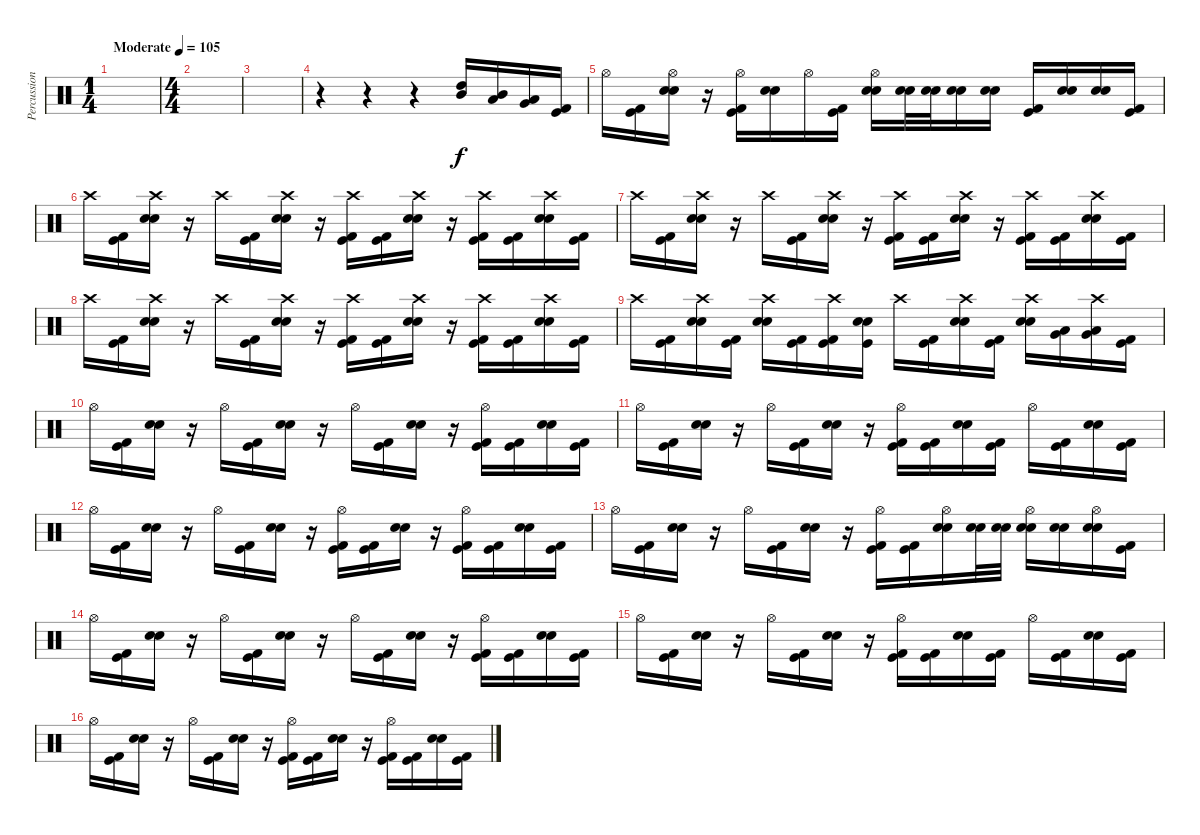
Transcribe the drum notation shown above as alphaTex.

\track ("Percussion" "Percussion") {instrument percussion}
\staff {score}
\articulation defaults
\ts (1 4)
\tempo (105 "Moderate")
\clef neutral
\ks c
|
\ts (4 4)
|
|
r.4 r.4 r.4 ("High Tom (hit)" "Mid Tom (hit)").16 ("Mid Tom (hit)" "Low Tom (hit)").16 ("Low Tom (hit)" "Very Low Tom (hit)").16 ("Kick (hit)" "Kick (hit) 2").16 |
"Hi-Hat (open)".16 ("Kick (hit)" "Kick (hit) 2").16 ("Hi-Hat (open)" "Snare (hit) 2" "Electric Snare (hit)").16 r.16 ("Kick (hit)" "Hi-Hat (open)" "Kick (hit) 2").16 ("Snare (hit) 2" "Electric Snare (hit)").16 "Hi-Hat (open)".16 ("Kick (hit)" "Kick (hit) 2").16 ("Hi-Hat (open)" "Snare (hit) 2" "Electric Snare (hit)").16 ("Snare (hit) 2" "Electric Snare (hit)").32 ("Snare (hit) 2" "Electric Snare (hit)").32 ("Snare (hit) 2" "Electric Snare (hit)").16 ("Snare (hit) 2" "Electric Snare (hit)").16 ("Kick (hit)" "Kick (hit) 2").16 ("Snare (hit) 2" "Electric Snare (hit)").16 ("Snare (hit) 2" "Electric Snare (hit)").16 ("Kick (hit)" "Kick (hit) 2").16 |
"Crash high (hit)".16 ("Kick (hit)" "Kick (hit) 2").16 ("Crash high (hit)" "Snare (hit) 2" "Electric Snare (hit)").16 r.16 "Crash high (hit)".16 ("Kick (hit)" "Kick (hit) 2").16 ("Crash high (hit)" "Snare (hit) 2" "Electric Snare (hit)").16 r.16 ("Kick (hit)" "Crash high (hit)" "Kick (hit) 2").16 ("Kick (hit)" "Kick (hit) 2").16 ("Crash high (hit)" "Snare (hit) 2" "Electric Snare (hit)").16 r.16 ("Kick (hit)" "Crash high (hit)" "Kick (hit) 2").16 ("Kick (hit)" "Kick (hit) 2").16 ("Crash high (hit)" "Snare (hit) 2" "Electric Snare (hit)").16 ("Kick (hit)" "Kick (hit) 2").16 |
"Crash high (hit)".16 ("Kick (hit)" "Kick (hit) 2").16 ("Crash high (hit)" "Snare (hit) 2" "Electric Snare (hit)").16 r.16 "Crash high (hit)".16 ("Kick (hit)" "Kick (hit) 2").16 ("Crash high (hit)" "Snare (hit) 2" "Electric Snare (hit)").16 r.16 ("Kick (hit)" "Crash high (hit)" "Kick (hit) 2").16 ("Kick (hit)" "Kick (hit) 2").16 ("Crash high (hit)" "Snare (hit) 2" "Electric Snare (hit)").16 r.16 ("Kick (hit)" "Crash high (hit)" "Kick (hit) 2").16 ("Kick (hit)" "Kick (hit) 2").16 ("Crash high (hit)" "Snare (hit) 2" "Electric Snare (hit)").16 ("Kick (hit)" "Kick (hit) 2").16 |
"Crash high (hit)".16 ("Kick (hit)" "Kick (hit) 2").16 ("Crash high (hit)" "Snare (hit) 2" "Electric Snare (hit)").16 r.16 "Crash high (hit)".16 ("Kick (hit)" "Kick (hit) 2").16 ("Crash high (hit)" "Snare (hit) 2" "Electric Snare (hit)").16 r.16 ("Kick (hit)" "Crash high (hit)" "Kick (hit) 2").16 ("Kick (hit)" "Kick (hit) 2").16 ("Crash high (hit)" "Snare (hit) 2" "Electric Snare (hit)").16 r.16 ("Kick (hit)" "Crash high (hit)" "Kick (hit) 2").16 ("Kick (hit)" "Kick (hit) 2").16 ("Crash high (hit)" "Snare (hit) 2" "Electric Snare (hit)").16 ("Kick (hit)" "Kick (hit) 2").16 |
"Crash high (hit)".16 ("Kick (hit)" "Kick (hit) 2").16 ("Crash high (hit)" "Snare (hit) 2" "Electric Snare (hit)").16 ("Kick (hit)" "Kick (hit) 2").16 ("Crash high (hit)" "Snare (hit) 2" "Electric Snare (hit)").16 ("Kick (hit)" "Kick (hit) 2").16 ("Kick (hit)" "Crash high (hit)" "Kick (hit) 2").16 ("Kick (hit)" "Snare (hit) 2" "Electric Snare (hit)").16 "Crash high (hit)".16 ("Kick (hit)" "Kick (hit) 2").16 ("Crash high (hit)" "Snare (hit) 2" "Electric Snare (hit)").16 ("Kick (hit)" "Kick (hit) 2").16 ("Crash high (hit)" "Snare (hit) 2" "Electric Snare (hit)").16 ("Low Tom (hit)" "Very Low Tom (hit)").16 ("Crash high (hit)" "Very Low Tom (hit)" "Low Floor Tom (hit)").16 ("Kick (hit)" "Kick (hit) 2").16 |
"Hi-Hat (open)".16 ("Kick (hit)" "Kick (hit) 2").16 ("Snare (hit) 2" "Electric Snare (hit)").16 r.16 "Hi-Hat (open)".16 ("Kick (hit)" "Kick (hit) 2").16 ("Snare (hit) 2" "Electric Snare (hit)").16 r.16 "Hi-Hat (open)".16 ("Kick (hit)" "Kick (hit) 2").16 ("Snare (hit) 2" "Electric Snare (hit)").16 r.16 ("Kick (hit)" "Hi-Hat (open)" "Kick (hit) 2").16 ("Kick (hit)" "Kick (hit) 2").16 ("Snare (hit) 2" "Electric Snare (hit)").16 ("Kick (hit)" "Kick (hit) 2").16 |
"Hi-Hat (open)".16 ("Kick (hit)" "Kick (hit) 2").16 ("Snare (hit) 2" "Electric Snare (hit)").16 r.16 "Hi-Hat (open)".16 ("Kick (hit)" "Kick (hit) 2").16 ("Snare (hit) 2" "Electric Snare (hit)").16 r.16 ("Kick (hit)" "Hi-Hat (open)" "Kick (hit) 2").16 ("Kick (hit)" "Kick (hit) 2").16 ("Snare (hit) 2" "Electric Snare (hit)").16 ("Kick (hit)" "Kick (hit) 2").16 "Hi-Hat (open)".16 ("Kick (hit)" "Kick (hit) 2").16 ("Snare (hit) 2" "Electric Snare (hit)").16 ("Kick (hit)" "Kick (hit) 2").16 |
"Hi-Hat (open)".16 ("Kick (hit)" "Kick (hit) 2").16 ("Snare (hit) 2" "Electric Snare (hit)").16 r.16 "Hi-Hat (open)".16 ("Kick (hit)" "Kick (hit) 2").16 ("Snare (hit) 2" "Electric Snare (hit)").16 r.16 ("Kick (hit)" "Hi-Hat (open)" "Kick (hit) 2").16 ("Kick (hit)" "Kick (hit) 2").16 ("Snare (hit) 2" "Electric Snare (hit)").16 r.16 ("Kick (hit)" "Hi-Hat (open)" "Kick (hit) 2").16 ("Kick (hit)" "Kick (hit) 2").16 ("Snare (hit) 2" "Electric Snare (hit)").16 ("Kick (hit)" "Kick (hit) 2").16 |
"Hi-Hat (open)".16 ("Kick (hit)" "Kick (hit) 2").16 ("Snare (hit) 2" "Electric Snare (hit)").16 r.16 "Hi-Hat (open)".16 ("Kick (hit)" "Kick (hit) 2").16 ("Snare (hit) 2" "Electric Snare (hit)").16 r.16 ("Kick (hit)" "Hi-Hat (open)" "Kick (hit) 2").16 ("Kick (hit)" "Kick (hit) 2").16 ("Snare (hit) 2" "Hi-Hat (open)" "Electric Snare (hit)").16 ("Snare (hit) 2" "Electric Snare (hit)").32 ("Snare (hit) 2" "Electric Snare (hit)").32 ("Hi-Hat (open)" "Snare (hit) 2" "Electric Snare (hit)").16 ("Snare (hit) 2" "Electric Snare (hit)").16 ("Snare (hit) 2" "Hi-Hat (open)" "Electric Snare (hit)").16 ("Kick (hit)" "Kick (hit) 2").16 |
"Hi-Hat (open)".16 ("Kick (hit)" "Kick (hit) 2").16 ("Snare (hit) 2" "Electric Snare (hit)").16 r.16 "Hi-Hat (open)".16 ("Kick (hit)" "Kick (hit) 2").16 ("Snare (hit) 2" "Electric Snare (hit)").16 r.16 "Hi-Hat (open)".16 ("Kick (hit)" "Kick (hit) 2").16 ("Snare (hit) 2" "Electric Snare (hit)").16 r.16 ("Kick (hit)" "Hi-Hat (open)" "Kick (hit) 2").16 ("Kick (hit)" "Kick (hit) 2").16 ("Snare (hit) 2" "Electric Snare (hit)").16 ("Kick (hit)" "Kick (hit) 2").16 |
"Hi-Hat (open)".16 ("Kick (hit)" "Kick (hit) 2").16 ("Snare (hit) 2" "Electric Snare (hit)").16 r.16 "Hi-Hat (open)".16 ("Kick (hit)" "Kick (hit) 2").16 ("Snare (hit) 2" "Electric Snare (hit)").16 r.16 ("Kick (hit)" "Hi-Hat (open)" "Kick (hit) 2").16 ("Kick (hit)" "Kick (hit) 2").16 ("Snare (hit) 2" "Electric Snare (hit)").16 ("Kick (hit)" "Kick (hit) 2").16 "Hi-Hat (open)".16 ("Kick (hit)" "Kick (hit) 2").16 ("Snare (hit) 2" "Electric Snare (hit)").16 ("Kick (hit)" "Kick (hit) 2").16 |
"Hi-Hat (open)".16 ("Kick (hit)" "Kick (hit) 2").16 ("Snare (hit) 2" "Electric Snare (hit)").16 r.16 "Hi-Hat (open)".16 ("Kick (hit)" "Kick (hit) 2").16 ("Snare (hit) 2" "Electric Snare (hit)").16 r.16 ("Kick (hit)" "Hi-Hat (open)" "Kick (hit) 2").16 ("Kick (hit)" "Kick (hit) 2").16 ("Snare (hit) 2" "Electric Snare (hit)").16 r.16 ("Kick (hit)" "Hi-Hat (open)" "Kick (hit) 2").16 ("Kick (hit)" "Kick (hit) 2").16 ("Snare (hit) 2" "Electric Snare (hit)").16 ("Kick (hit)" "Kick (hit) 2").16
